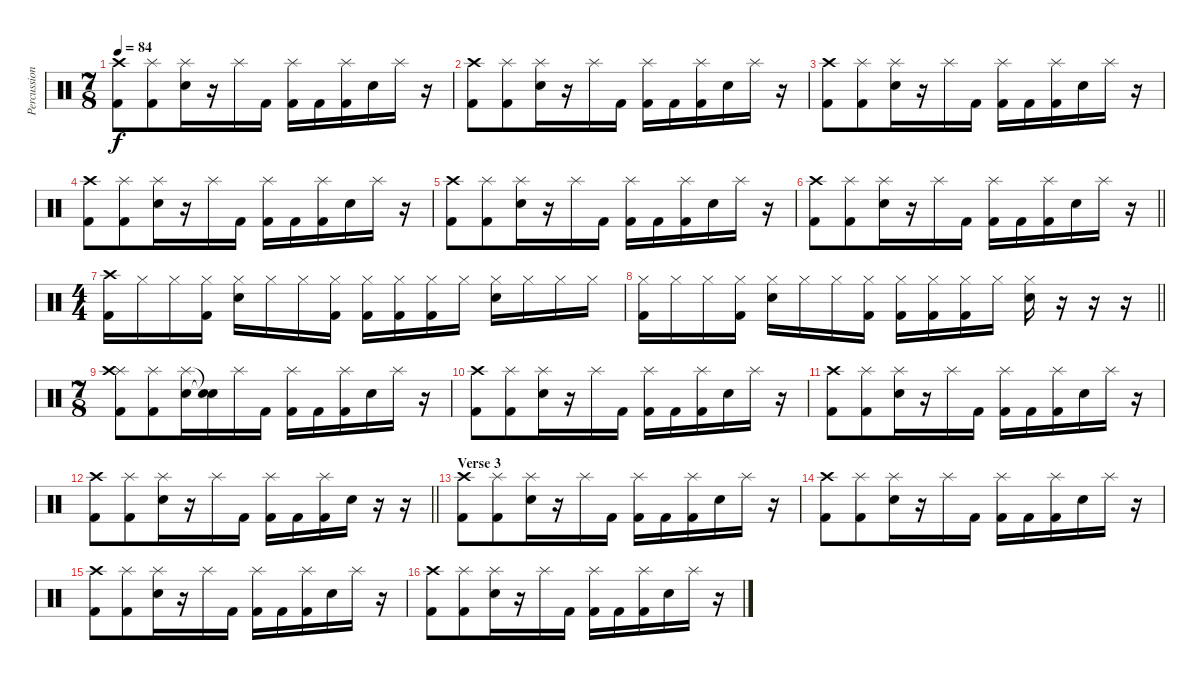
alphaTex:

\track ("Percussions" "Percussion") {instrument percussion}
\staff {score}
\articulation defaults
\ts (7 8)
\tempo 84
\clef neutral
\ks c
("Crash high (hit)" "Kick (hit) 2").8{dy f} ("Splash (hit)" "Kick (hit) 2").8 ("Splash (hit)" "Electric Snare (hit)").16 r.16 "Splash (hit)".16 "Kick (hit) 2".16 ("Splash (hit)" "Kick (hit) 2").16 "Kick (hit) 2".16 ("Splash (hit)" "Kick (hit) 2").16 "Electric Snare (hit)".16 "Splash (hit)".16 r.16 |
("Crash high (hit)" "Kick (hit) 2").8 ("Splash (hit)" "Kick (hit) 2").8 ("Splash (hit)" "Electric Snare (hit)").16 r.16 "Splash (hit)".16 "Kick (hit) 2".16 ("Splash (hit)" "Kick (hit) 2").16 "Kick (hit) 2".16 ("Splash (hit)" "Kick (hit) 2").16 "Electric Snare (hit)".16 "Splash (hit)".16 r.16 |
("Crash high (hit)" "Kick (hit) 2").8 ("Splash (hit)" "Kick (hit) 2").8 ("Splash (hit)" "Electric Snare (hit)").16 r.16 "Splash (hit)".16 "Kick (hit) 2".16 ("Splash (hit)" "Kick (hit) 2").16 "Kick (hit) 2".16 ("Splash (hit)" "Kick (hit) 2").16 "Electric Snare (hit)".16 "Splash (hit)".16 r.16 |
("Crash high (hit)" "Kick (hit) 2").8 ("Splash (hit)" "Kick (hit) 2").8 ("Splash (hit)" "Electric Snare (hit)").16 r.16 "Splash (hit)".16 "Kick (hit) 2".16 ("Splash (hit)" "Kick (hit) 2").16 "Kick (hit) 2".16 ("Splash (hit)" "Kick (hit) 2").16 "Electric Snare (hit)".16 "Splash (hit)".16 r.16 |
("Crash high (hit)" "Kick (hit) 2").8 ("Splash (hit)" "Kick (hit) 2").8 ("Splash (hit)" "Electric Snare (hit)").16 r.16 "Splash (hit)".16 "Kick (hit) 2".16 ("Splash (hit)" "Kick (hit) 2").16 "Kick (hit) 2".16 ("Splash (hit)" "Kick (hit) 2").16 "Electric Snare (hit)".16 "Splash (hit)".16 r.16 |
\barLineRight lightlight
("Crash high (hit)" "Kick (hit) 2").8 ("Splash (hit)" "Kick (hit) 2").8 ("Splash (hit)" "Electric Snare (hit)").16 r.16 "Splash (hit)".16 "Kick (hit) 2".16 ("Splash (hit)" "Kick (hit) 2").16 "Kick (hit) 2".16 ("Splash (hit)" "Kick (hit) 2").16 "Electric Snare (hit)".16 "Splash (hit)".16 r.16 |
\ts (4 4)
("Crash high (hit)" "Kick (hit) 2").16 "Hi-Hat (closed)".16 "Hi-Hat (closed)".16 ("Hi-Hat (closed)" "Kick (hit) 2").16 ("Hi-Hat (closed)" "Electric Snare (hit)").16 "Hi-Hat (closed)".16 "Hi-Hat (closed)".16 ("Hi-Hat (closed)" "Kick (hit) 2").16 ("Hi-Hat (closed)" "Kick (hit) 2").16 ("Hi-Hat (closed)" "Kick (hit) 2").16 ("Hi-Hat (closed)" "Kick (hit) 2").16 "Hi-Hat (closed)".16 ("Hi-Hat (closed)" "Electric Snare (hit)").16 "Hi-Hat (closed)".16 "Hi-Hat (closed)".16 "Hi-Hat (closed)".16 |
\barLineRight lightlight
("Hi-Hat (closed)" "Kick (hit) 2").16 "Hi-Hat (closed)".16 "Hi-Hat (closed)".16 ("Hi-Hat (closed)" "Kick (hit) 2").16 ("Hi-Hat (closed)" "Electric Snare (hit)").16 "Hi-Hat (closed)".16 "Hi-Hat (closed)".16 ("Hi-Hat (closed)" "Kick (hit) 2").16 ("Hi-Hat (closed)" "Kick (hit) 2").16 ("Hi-Hat (closed)" "Kick (hit) 2").16 ("Hi-Hat (closed)" "Kick (hit) 2").16 "Hi-Hat (closed)".16 ("Hi-Hat (closed)" "Electric Snare (hit)").16 r.16 r.16 r.16 |
\ts (7 8)
("Splash (hit)" "Kick (hit) 2" "Crash high (hit)").8 ("Kick (hit) 2" "Splash (hit)").8 ("Electric Snare (hit)" "Splash (hit)").16 ("Snare (hit)"{t} "Snare (hit)"{t}).16 "Splash (hit)".16 "Kick (hit) 2".16 ("Kick (hit) 2" "Splash (hit)").16 "Kick (hit) 2".16 ("Kick (hit) 2" "Splash (hit)").16 "Electric Snare (hit)".16 "Splash (hit)".16 r.16 |
("Crash high (hit)" "Kick (hit) 2").8 ("Splash (hit)" "Kick (hit) 2").8 ("Splash (hit)" "Electric Snare (hit)").16 r.16 "Splash (hit)".16 "Kick (hit) 2".16 ("Splash (hit)" "Kick (hit) 2").16 "Kick (hit) 2".16 ("Splash (hit)" "Kick (hit) 2").16 "Electric Snare (hit)".16 "Splash (hit)".16 r.16 |
("Crash high (hit)" "Kick (hit) 2").8 ("Splash (hit)" "Kick (hit) 2").8 ("Splash (hit)" "Electric Snare (hit)").16 r.16 "Splash (hit)".16 "Kick (hit) 2".16 ("Splash (hit)" "Kick (hit) 2").16 "Kick (hit) 2".16 ("Splash (hit)" "Kick (hit) 2").16 "Electric Snare (hit)".16 "Splash (hit)".16 r.16 |
\barLineRight lightlight
("Crash high (hit)" "Kick (hit) 2").8 ("Splash (hit)" "Kick (hit) 2").8 ("Splash (hit)" "Electric Snare (hit)").16 r.16 "Splash (hit)".16 "Kick (hit) 2".16 ("Splash (hit)" "Kick (hit) 2").16 "Kick (hit) 2".16 ("Splash (hit)" "Kick (hit) 2").16 "Electric Snare (hit)".16 r.16 r.16 |
\section ("" "Verse 3")
("Crash high (hit)" "Kick (hit) 2").8 ("Splash (hit)" "Kick (hit) 2").8 ("Splash (hit)" "Electric Snare (hit)").16 r.16 "Splash (hit)".16 "Kick (hit) 2".16 ("Splash (hit)" "Kick (hit) 2").16 "Kick (hit) 2".16 ("Splash (hit)" "Kick (hit) 2").16 "Electric Snare (hit)".16 "Splash (hit)".16 r.16 |
("Crash high (hit)" "Kick (hit) 2").8 ("Splash (hit)" "Kick (hit) 2").8 ("Splash (hit)" "Electric Snare (hit)").16 r.16 "Splash (hit)".16 "Kick (hit) 2".16 ("Splash (hit)" "Kick (hit) 2").16 "Kick (hit) 2".16 ("Splash (hit)" "Kick (hit) 2").16 "Electric Snare (hit)".16 "Splash (hit)".16 r.16 |
("Crash high (hit)" "Kick (hit) 2").8 ("Splash (hit)" "Kick (hit) 2").8 ("Splash (hit)" "Electric Snare (hit)").16 r.16 "Splash (hit)".16 "Kick (hit) 2".16 ("Splash (hit)" "Kick (hit) 2").16 "Kick (hit) 2".16 ("Splash (hit)" "Kick (hit) 2").16 "Electric Snare (hit)".16 "Splash (hit)".16 r.16 |
("Crash high (hit)" "Kick (hit) 2").8 ("Splash (hit)" "Kick (hit) 2").8 ("Splash (hit)" "Electric Snare (hit)").16 r.16 "Splash (hit)".16 "Kick (hit) 2".16 ("Splash (hit)" "Kick (hit) 2").16 "Kick (hit) 2".16 ("Splash (hit)" "Kick (hit) 2").16 "Electric Snare (hit)".16 "Splash (hit)".16 r.16
